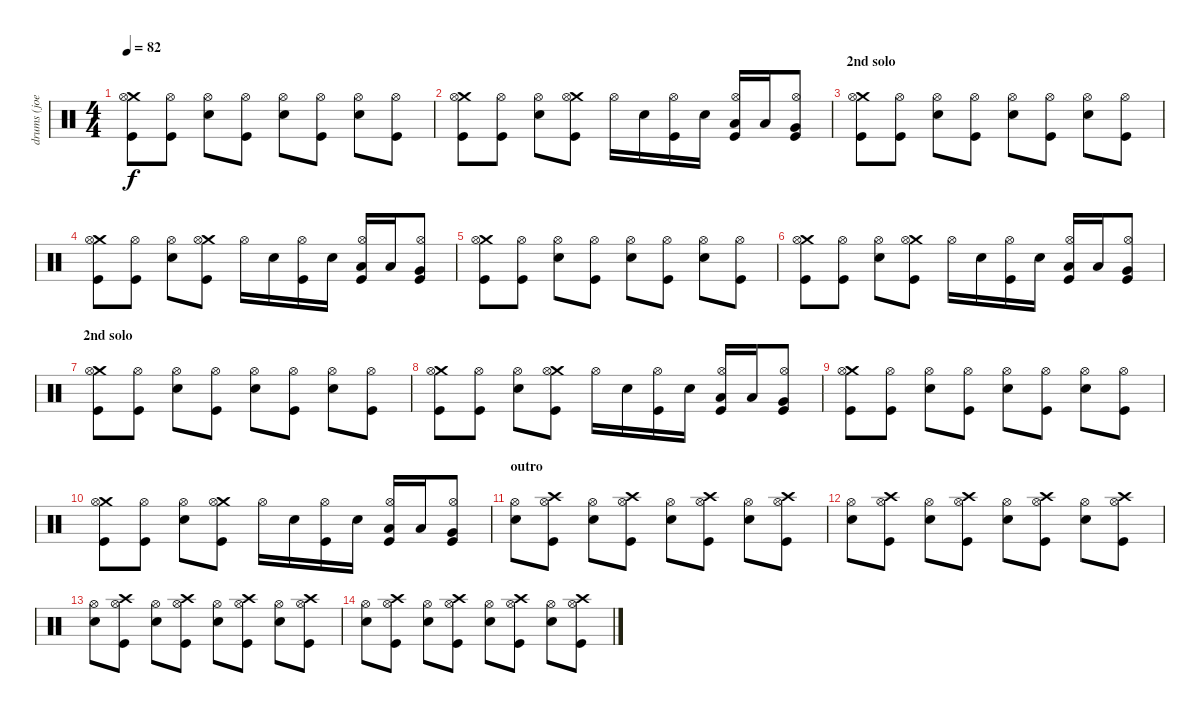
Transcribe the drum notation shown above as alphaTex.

\track ("drums (joey castillo)" "drums (joe") {instrument percussion}
\staff {score}
\articulation defaults
\ts (4 4)
\tempo 82
\clef neutral
\ks c
("Crash medium (hit)" "Kick (hit)" "Hi-Hat (open)").8{dy f} ("Kick (hit)" "Hi-Hat (open)").8 ("Electric Snare (hit)" "Hi-Hat (open)").8 ("Kick (hit)" "Hi-Hat (open)").8 ("Electric Snare (hit)" "Hi-Hat (open)").8 ("Kick (hit)" "Hi-Hat (open)").8 ("Electric Snare (hit)" "Hi-Hat (open)").8 ("Kick (hit)" "Hi-Hat (open)").8 |
("Crash medium (hit)" "Kick (hit)" "Hi-Hat (open)").8 ("Kick (hit)" "Hi-Hat (open)").8 ("Electric Snare (hit)" "Hi-Hat (open)").8 ("Crash medium (hit)" "Kick (hit)" "Hi-Hat (open)").8 "Hi-Hat (open)".16 "Electric Snare (hit)".16 ("Kick (hit)" "Hi-Hat (open)").16 "Electric Snare (hit)".16 ("Low Tom (hit)" "Kick (hit)" "Hi-Hat (open)").16 "Low Tom (hit)".16 ("Very Low Tom (hit)" "Kick (hit)" "Hi-Hat (open)").8 |
\section ("" "2nd solo")
("Crash medium (hit)" "Kick (hit)" "Hi-Hat (open)").8 ("Kick (hit)" "Hi-Hat (open)").8 ("Electric Snare (hit)" "Hi-Hat (open)").8 ("Kick (hit)" "Hi-Hat (open)").8 ("Electric Snare (hit)" "Hi-Hat (open)").8 ("Kick (hit)" "Hi-Hat (open)").8 ("Electric Snare (hit)" "Hi-Hat (open)").8 ("Kick (hit)" "Hi-Hat (open)").8 |
("Crash medium (hit)" "Kick (hit)" "Hi-Hat (open)").8 ("Kick (hit)" "Hi-Hat (open)").8 ("Electric Snare (hit)" "Hi-Hat (open)").8 ("Crash medium (hit)" "Kick (hit)" "Hi-Hat (open)").8 "Hi-Hat (open)".16 "Electric Snare (hit)".16 ("Kick (hit)" "Hi-Hat (open)").16 "Electric Snare (hit)".16 ("Low Tom (hit)" "Kick (hit)" "Hi-Hat (open)").16 "Low Tom (hit)".16 ("Very Low Tom (hit)" "Kick (hit)" "Hi-Hat (open)").8 |
("Crash medium (hit)" "Kick (hit)" "Hi-Hat (open)").8 ("Kick (hit)" "Hi-Hat (open)").8 ("Electric Snare (hit)" "Hi-Hat (open)").8 ("Kick (hit)" "Hi-Hat (open)").8 ("Electric Snare (hit)" "Hi-Hat (open)").8 ("Kick (hit)" "Hi-Hat (open)").8 ("Electric Snare (hit)" "Hi-Hat (open)").8 ("Kick (hit)" "Hi-Hat (open)").8 |
("Crash medium (hit)" "Kick (hit)" "Hi-Hat (open)").8 ("Kick (hit)" "Hi-Hat (open)").8 ("Electric Snare (hit)" "Hi-Hat (open)").8 ("Crash medium (hit)" "Kick (hit)" "Hi-Hat (open)").8 "Hi-Hat (open)".16 "Electric Snare (hit)".16 ("Kick (hit)" "Hi-Hat (open)").16 "Electric Snare (hit)".16 ("Low Tom (hit)" "Kick (hit)" "Hi-Hat (open)").16 "Low Tom (hit)".16 ("Very Low Tom (hit)" "Kick (hit)" "Hi-Hat (open)").8 |
\section ("" "2nd solo")
("Crash medium (hit)" "Kick (hit)" "Hi-Hat (open)").8 ("Kick (hit)" "Hi-Hat (open)").8 ("Electric Snare (hit)" "Hi-Hat (open)").8 ("Kick (hit)" "Hi-Hat (open)").8 ("Electric Snare (hit)" "Hi-Hat (open)").8 ("Kick (hit)" "Hi-Hat (open)").8 ("Electric Snare (hit)" "Hi-Hat (open)").8 ("Kick (hit)" "Hi-Hat (open)").8 |
("Crash medium (hit)" "Kick (hit)" "Hi-Hat (open)").8 ("Kick (hit)" "Hi-Hat (open)").8 ("Electric Snare (hit)" "Hi-Hat (open)").8 ("Crash medium (hit)" "Kick (hit)" "Hi-Hat (open)").8 "Hi-Hat (open)".16 "Electric Snare (hit)".16 ("Kick (hit)" "Hi-Hat (open)").16 "Electric Snare (hit)".16 ("Low Tom (hit)" "Kick (hit)" "Hi-Hat (open)").16 "Low Tom (hit)".16 ("Very Low Tom (hit)" "Kick (hit)" "Hi-Hat (open)").8 |
("Crash medium (hit)" "Kick (hit)" "Hi-Hat (open)").8 ("Kick (hit)" "Hi-Hat (open)").8 ("Electric Snare (hit)" "Hi-Hat (open)").8 ("Kick (hit)" "Hi-Hat (open)").8 ("Electric Snare (hit)" "Hi-Hat (open)").8 ("Kick (hit)" "Hi-Hat (open)").8 ("Electric Snare (hit)" "Hi-Hat (open)").8 ("Kick (hit)" "Hi-Hat (open)").8 |
("Crash medium (hit)" "Kick (hit)" "Hi-Hat (open)").8 ("Kick (hit)" "Hi-Hat (open)").8 ("Electric Snare (hit)" "Hi-Hat (open)").8 ("Crash medium (hit)" "Kick (hit)" "Hi-Hat (open)").8 "Hi-Hat (open)".16 "Electric Snare (hit)".16 ("Kick (hit)" "Hi-Hat (open)").16 "Electric Snare (hit)".16 ("Low Tom (hit)" "Kick (hit)" "Hi-Hat (open)").16 "Low Tom (hit)".16 ("Very Low Tom (hit)" "Kick (hit)" "Hi-Hat (open)").8 |
\section ("" "outro")
("Electric Snare (hit)" "Hi-Hat (open)").8 ("Crash high (hit)" "Kick (hit)" "Hi-Hat (open)").8 ("Electric Snare (hit)" "Hi-Hat (open)").8 ("Crash high (hit)" "Kick (hit)" "Hi-Hat (open)").8 ("Electric Snare (hit)" "Hi-Hat (open)").8 ("Crash high (hit)" "Kick (hit)" "Hi-Hat (open)").8 ("Electric Snare (hit)" "Hi-Hat (open)").8 ("Crash high (hit)" "Kick (hit)" "Hi-Hat (open)").8 |
("Electric Snare (hit)" "Hi-Hat (open)").8 ("Crash high (hit)" "Kick (hit)" "Hi-Hat (open)").8 ("Electric Snare (hit)" "Hi-Hat (open)").8 ("Crash high (hit)" "Kick (hit)" "Hi-Hat (open)").8 ("Electric Snare (hit)" "Hi-Hat (open)").8 ("Crash high (hit)" "Kick (hit)" "Hi-Hat (open)").8 ("Electric Snare (hit)" "Hi-Hat (open)").8 ("Crash high (hit)" "Kick (hit)" "Hi-Hat (open)").8 |
("Electric Snare (hit)" "Hi-Hat (open)").8 ("Crash high (hit)" "Kick (hit)" "Hi-Hat (open)").8 ("Electric Snare (hit)" "Hi-Hat (open)").8 ("Crash high (hit)" "Kick (hit)" "Hi-Hat (open)").8 ("Electric Snare (hit)" "Hi-Hat (open)").8 ("Crash high (hit)" "Kick (hit)" "Hi-Hat (open)").8 ("Electric Snare (hit)" "Hi-Hat (open)").8 ("Crash high (hit)" "Kick (hit)" "Hi-Hat (open)").8 |
("Electric Snare (hit)" "Hi-Hat (open)").8 ("Crash high (hit)" "Kick (hit)" "Hi-Hat (open)").8 ("Electric Snare (hit)" "Hi-Hat (open)").8 ("Crash high (hit)" "Kick (hit)" "Hi-Hat (open)").8 ("Electric Snare (hit)" "Hi-Hat (open)").8 ("Crash high (hit)" "Kick (hit)" "Hi-Hat (open)").8 ("Electric Snare (hit)" "Hi-Hat (open)").8 ("Crash high (hit)" "Kick (hit)" "Hi-Hat (open)").8
